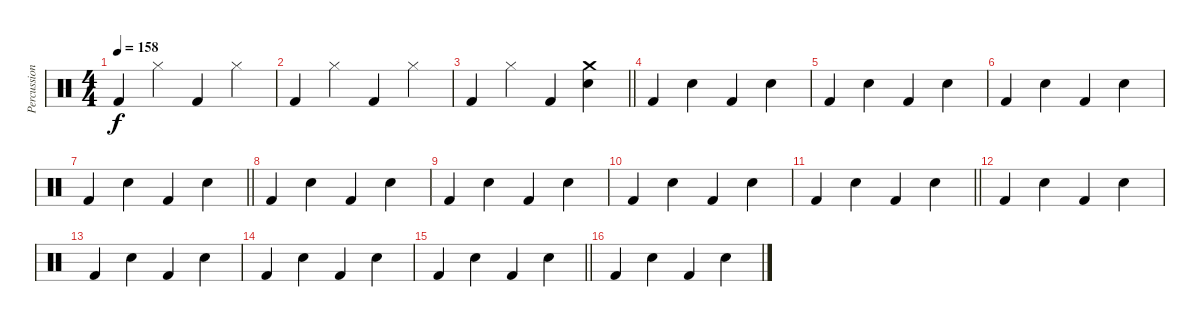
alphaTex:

\track ("Percussions" "Percussion") {instrument percussion}
\staff {score}
\articulation defaults
\ts (4 4)
\tempo 158
\clef neutral
\ks c "Kick (hit) 2".4{dy f} "Hi-Hat (closed)".4 "Kick (hit) 2".4 "Hi-Hat (closed)".4
|
"Kick (hit) 2".4 "Hi-Hat (closed)".4 "Kick (hit) 2".4 "Hi-Hat (closed)".4 |
\barLineRight lightlight "Kick (hit) 2".4 "Hi-Hat (closed)".4 "Kick (hit) 2".4
("Crash medium (hit)" "Electric Snare (hit)").4 |
"Kick (hit) 2".4{volume 16} "Electric Snare (hit)".4 "Kick (hit) 2".4 "Electric Snare (hit)".4 |
"Kick (hit) 2".4 "Electric Snare (hit)".4 "Kick (hit) 2".4 "Electric Snare (hit)".4 |
"Kick (hit) 2".4{volume 16} "Electric Snare (hit)".4 "Kick (hit) 2".4 "Electric Snare (hit)".4 |
\barLineRight lightlight "Kick (hit) 2".4 "Electric Snare (hit)".4 "Kick (hit) 2".4 "Electric Snare (hit)".4
|
"Kick (hit) 2".4{volume 16} "Electric Snare (hit)".4 "Kick (hit) 2".4 "Electric Snare (hit)".4 |
"Kick (hit) 2".4 "Electric Snare (hit)".4 "Kick (hit) 2".4 "Electric Snare (hit)".4 |
"Kick (hit) 2".4{volume 16} "Electric Snare (hit)".4 "Kick (hit) 2".4 "Electric Snare (hit)".4 |
\barLineRight lightlight "Kick (hit) 2".4 "Electric Snare (hit)".4 "Kick (hit) 2".4 "Electric Snare (hit)".4
|
"Kick (hit) 2".4{volume 16} "Electric Snare (hit)".4 "Kick (hit) 2".4 "Electric Snare (hit)".4 |
"Kick (hit) 2".4 "Electric Snare (hit)".4 "Kick (hit) 2".4 "Electric Snare (hit)".4 |
"Kick (hit) 2".4{volume 16} "Electric Snare (hit)".4 "Kick (hit) 2".4 "Electric Snare (hit)".4 |
\barLineRight lightlight "Kick (hit) 2".4 "Electric Snare (hit)".4 "Kick (hit) 2".4 "Electric Snare (hit)".4
|
"Kick (hit) 2".4{volume 16} "Electric Snare (hit)".4 "Kick (hit) 2".4 "Electric Snare (hit)".4
